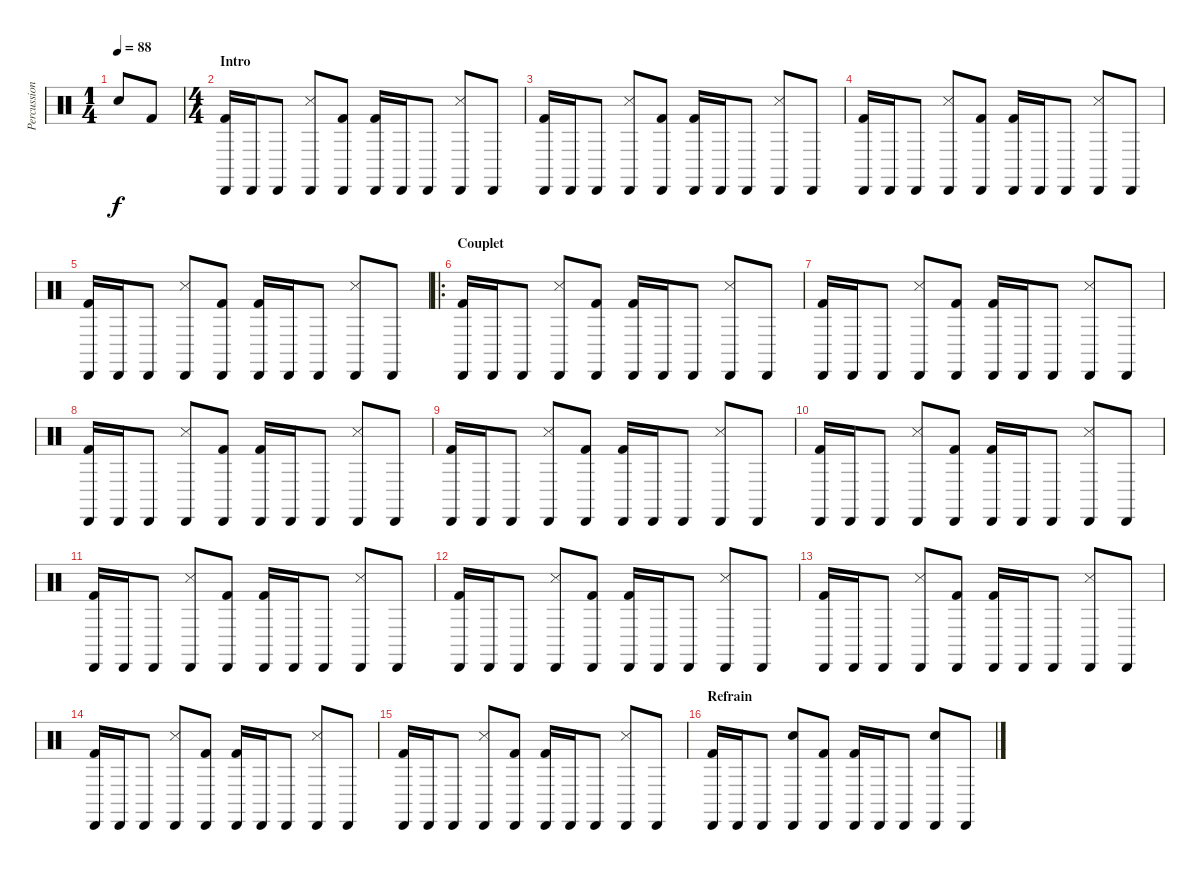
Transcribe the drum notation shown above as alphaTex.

\track ("Percussions" "Percussion") {instrument percussion}
\staff {score}
\articulation defaults
\ts (1 4)
\tempo 88
\clef neutral
\ks c "Snare (hit) 2".8{dy f} "Kick (hit) 2".8
|
\ts (4 4)
\section ("" "Intro")
("Cabasa (hit)" "Kick (hit) 2").16 "Cabasa (hit)".16 "Cabasa (hit)".8 ("Cabasa (hit)" "Snare (side stick) 3").8 ("Cabasa (hit)" "Kick (hit) 2").8 ("Cabasa (hit)" "Kick (hit) 2").16 "Cabasa (hit)".16 "Cabasa (hit)".8 ("Cabasa (hit)" "Snare (side stick) 3").8 "Cabasa (hit)".8 |
("Cabasa (hit)" "Kick (hit) 2").16 "Cabasa (hit)".16 "Cabasa (hit)".8 ("Cabasa (hit)" "Snare (side stick) 3").8 ("Cabasa (hit)" "Kick (hit) 2").8 ("Cabasa (hit)" "Kick (hit) 2").16 "Cabasa (hit)".16 "Cabasa (hit)".8 ("Cabasa (hit)" "Snare (side stick) 3").8 "Cabasa (hit)".8 |
("Cabasa (hit)" "Kick (hit) 2").16 "Cabasa (hit)".16 "Cabasa (hit)".8 ("Cabasa (hit)" "Snare (side stick) 3").8 ("Cabasa (hit)" "Kick (hit) 2").8 ("Cabasa (hit)" "Kick (hit) 2").16 "Cabasa (hit)".16 "Cabasa (hit)".8 ("Cabasa (hit)" "Snare (side stick) 3").8 "Cabasa (hit)".8 |
("Cabasa (hit)" "Kick (hit) 2").16 "Cabasa (hit)".16 "Cabasa (hit)".8 ("Cabasa (hit)" "Snare (side stick) 3").8 ("Cabasa (hit)" "Kick (hit) 2").8 ("Cabasa (hit)" "Kick (hit) 2").16 "Cabasa (hit)".16 "Cabasa (hit)".8 ("Cabasa (hit)" "Snare (side stick) 3").8 "Cabasa (hit)".8 |
\ro
\section ("" "Couplet")
("Cabasa (hit)" "Kick (hit) 2").16 "Cabasa (hit)".16 "Cabasa (hit)".8 ("Cabasa (hit)" "Snare (side stick) 3").8 ("Cabasa (hit)" "Kick (hit) 2").8 ("Cabasa (hit)" "Kick (hit) 2").16 "Cabasa (hit)".16 "Cabasa (hit)".8 ("Cabasa (hit)" "Snare (side stick) 3").8 "Cabasa (hit)".8 |
("Cabasa (hit)" "Kick (hit) 2").16 "Cabasa (hit)".16 "Cabasa (hit)".8 ("Cabasa (hit)" "Snare (side stick) 3").8 ("Cabasa (hit)" "Kick (hit) 2").8 ("Cabasa (hit)" "Kick (hit) 2").16 "Cabasa (hit)".16 "Cabasa (hit)".8 ("Cabasa (hit)" "Snare (side stick) 3").8 "Cabasa (hit)".8 |
("Cabasa (hit)" "Kick (hit) 2").16 "Cabasa (hit)".16 "Cabasa (hit)".8 ("Cabasa (hit)" "Snare (side stick) 3").8 ("Cabasa (hit)" "Kick (hit) 2").8 ("Cabasa (hit)" "Kick (hit) 2").16 "Cabasa (hit)".16 "Cabasa (hit)".8 ("Cabasa (hit)" "Snare (side stick) 3").8 "Cabasa (hit)".8 |
("Cabasa (hit)" "Kick (hit) 2").16 "Cabasa (hit)".16 "Cabasa (hit)".8 ("Cabasa (hit)" "Snare (side stick) 3").8 ("Cabasa (hit)" "Kick (hit) 2").8 ("Cabasa (hit)" "Kick (hit) 2").16 "Cabasa (hit)".16 "Cabasa (hit)".8 ("Cabasa (hit)" "Snare (side stick) 3").8 "Cabasa (hit)".8 |
("Cabasa (hit)" "Kick (hit) 2").16 "Cabasa (hit)".16 "Cabasa (hit)".8 ("Cabasa (hit)" "Snare (side stick) 3").8 ("Cabasa (hit)" "Kick (hit) 2").8 ("Cabasa (hit)" "Kick (hit) 2").16 "Cabasa (hit)".16 "Cabasa (hit)".8 ("Cabasa (hit)" "Snare (side stick) 3").8 "Cabasa (hit)".8 |
("Cabasa (hit)" "Kick (hit) 2").16 "Cabasa (hit)".16 "Cabasa (hit)".8 ("Cabasa (hit)" "Snare (side stick) 3").8 ("Cabasa (hit)" "Kick (hit) 2").8 ("Cabasa (hit)" "Kick (hit) 2").16 "Cabasa (hit)".16 "Cabasa (hit)".8 ("Cabasa (hit)" "Snare (side stick) 3").8 "Cabasa (hit)".8 |
("Cabasa (hit)" "Kick (hit) 2").16 "Cabasa (hit)".16 "Cabasa (hit)".8 ("Cabasa (hit)" "Snare (side stick) 3").8 ("Cabasa (hit)" "Kick (hit) 2").8 ("Cabasa (hit)" "Kick (hit) 2").16 "Cabasa (hit)".16 "Cabasa (hit)".8 ("Cabasa (hit)" "Snare (side stick) 3").8 "Cabasa (hit)".8 |
("Cabasa (hit)" "Kick (hit) 2").16 "Cabasa (hit)".16 "Cabasa (hit)".8 ("Cabasa (hit)" "Snare (side stick) 3").8 ("Cabasa (hit)" "Kick (hit) 2").8 ("Cabasa (hit)" "Kick (hit) 2").16 "Cabasa (hit)".16 "Cabasa (hit)".8 ("Cabasa (hit)" "Snare (side stick) 3").8 "Cabasa (hit)".8 |
("Cabasa (hit)" "Kick (hit) 2").16 "Cabasa (hit)".16 "Cabasa (hit)".8 ("Cabasa (hit)" "Snare (side stick) 3").8 ("Cabasa (hit)" "Kick (hit) 2").8 ("Cabasa (hit)" "Kick (hit) 2").16 "Cabasa (hit)".16 "Cabasa (hit)".8 ("Cabasa (hit)" "Snare (side stick) 3").8 "Cabasa (hit)".8 |
("Cabasa (hit)" "Kick (hit) 2").16 "Cabasa (hit)".16 "Cabasa (hit)".8 ("Cabasa (hit)" "Snare (side stick) 3").8 ("Cabasa (hit)" "Kick (hit) 2").8 ("Cabasa (hit)" "Kick (hit) 2").16 "Cabasa (hit)".16 "Cabasa (hit)".8 ("Cabasa (hit)" "Snare (side stick) 3").8 "Cabasa (hit)".8 |
\section ("" "Refrain")
("Cabasa (hit)" "Kick (hit) 2").16 "Cabasa (hit)".16 "Cabasa (hit)".8 ("Cabasa (hit)" "Electric Snare (hit)").8 ("Cabasa (hit)" "Kick (hit) 2").8 ("Cabasa (hit)" "Kick (hit) 2").16 "Cabasa (hit)".16 "Cabasa (hit)".8 ("Cabasa (hit)" "Electric Snare (hit)").8 "Cabasa (hit)".8
